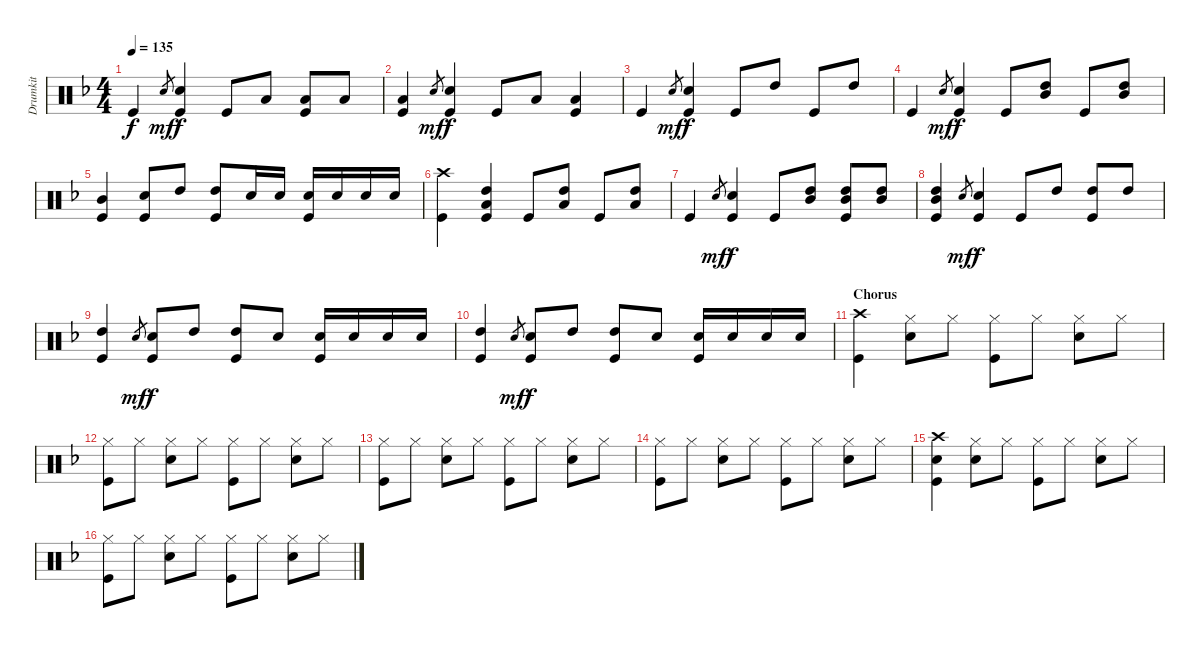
\track ("Drumkit" "Drumkit") {instrument percussion}
\staff {score}
\articulation defaults
\ts (4 4)
\tempo 135
\clef neutral
\ks f "Kick (hit)".4{dy f} "Snare (hit)".8{gr dy mf}
("Snare (hit) 2" "Kick (hit)").4{dy f} "Kick (hit)".8 "Low Tom (hit)".8 ("Low Tom (hit)" "Kick (hit)").8 "Low Tom (hit)".8 |
("Low Tom (hit)" "Kick (hit)").4 "Snare (hit)".8{gr dy mf} ("Snare (hit) 2" "Kick (hit)").4{dy f} "Kick (hit)".8 "Low Tom (hit)".8 ("Low Tom (hit)" "Kick (hit)").4 |
"Kick (hit)".4 "Snare (hit)".8{gr dy mf} ("Snare (hit) 2" "Kick (hit)").4{dy f} "Kick (hit)".8 "High Tom (hit)".8 "Kick (hit)".8 "High Tom (hit)".8 |
"Kick (hit)".4 "Snare (hit)".8{gr dy mf} ("Snare (hit) 2" "Kick (hit)").4{dy f} "Kick (hit)".8 ("High Tom (hit)" "Mid Tom (hit)").8 "Kick (hit)".8 ("High Tom (hit)" "Mid Tom (hit)").8 |
("Mid Tom (hit)" "Kick (hit)").4 ("Snare (hit) 2" "Kick (hit)").8 "High Tom (hit)".8 ("High Tom (hit)" "Kick (hit)").8 "Snare (hit) 2".16 "Snare (hit) 2".16 ("Snare (hit) 2" "Kick (hit)").16 "Snare (hit) 2".16 "Snare (hit) 2".16 "Snare (hit) 2".16 |
("Crash high (hit)" "Kick (hit)").4 ("High Tom (hit)" "Low Tom (hit)" "Kick (hit)").4 "Kick (hit)".8 ("High Tom (hit)" "Low Tom (hit)").8 "Kick (hit)".8 ("High Tom (hit)" "Low Tom (hit)").8 |
"Kick (hit)".4 "Snare (hit)".8{gr dy mf} ("Snare (hit) 2" "Kick (hit)").4{dy f} "Kick (hit)".8 ("High Tom (hit)" "Mid Tom (hit)").8 ("High Tom (hit)" "Mid Tom (hit)" "Kick (hit)").8 ("High Tom (hit)" "Mid Tom (hit)").8 |
("High Tom (hit)" "Mid Tom (hit)" "Kick (hit)").4 "Snare (hit)".8{gr dy mf} ("Snare (hit) 2" "Kick (hit)").4{dy f} "Kick (hit)".8 "High Tom (hit)".8 ("High Tom (hit)" "Kick (hit)").8 "High Tom (hit)".8 |
("High Tom (hit)" "Kick (hit)").4 "Snare (hit)".8{gr dy mf} ("Snare (hit) 2" "Kick (hit)").8{dy f} "High Tom (hit)".8 ("High Tom (hit)" "Kick (hit)").8 "Snare (hit) 2".8 ("Snare (hit) 2" "Kick (hit)").16 "Snare (hit) 2".16 "Snare (hit) 2".16 "Snare (hit) 2".16 |
("High Tom (hit)" "Kick (hit)").4 "Snare (hit)".8{gr dy mf} ("Snare (hit) 2" "Kick (hit)").8{dy f} "High Tom (hit)".8 ("High Tom (hit)" "Kick (hit)").8 "Snare (hit) 2".8 ("Snare (hit) 2" "Kick (hit)").16 "Snare (hit) 2".16 "Snare (hit) 2".16 "Snare (hit) 2".16 |
\section ("" "Chorus")
("Crash high (hit)" "Kick (hit)").4 ("Hi-Hat (closed)" "Snare (hit) 2").8 "Hi-Hat (closed)".8 ("Hi-Hat (closed)" "Kick (hit)").8 "Hi-Hat (closed)".8 ("Hi-Hat (closed)" "Snare (hit) 2").8 "Hi-Hat (closed)".8 |
("Hi-Hat (closed)" "Kick (hit)").8 "Hi-Hat (closed)".8 ("Hi-Hat (closed)" "Snare (hit) 2").8 "Hi-Hat (closed)".8 ("Hi-Hat (closed)" "Kick (hit)").8 "Hi-Hat (closed)".8 ("Hi-Hat (closed)" "Snare (hit) 2").8 "Hi-Hat (closed)".8 |
("Hi-Hat (closed)" "Kick (hit)").8 "Hi-Hat (closed)".8 ("Hi-Hat (closed)" "Snare (hit) 2").8 "Hi-Hat (closed)".8 ("Hi-Hat (closed)" "Kick (hit)").8 "Hi-Hat (closed)".8 ("Hi-Hat (closed)" "Snare (hit) 2").8 "Hi-Hat (closed)".8 |
("Hi-Hat (closed)" "Kick (hit)").8 "Hi-Hat (closed)".8 ("Hi-Hat (closed)" "Snare (hit) 2").8 "Hi-Hat (closed)".8 ("Hi-Hat (closed)" "Kick (hit)").8 "Hi-Hat (closed)".8 ("Hi-Hat (closed)" "Snare (hit) 2").8 "Hi-Hat (closed)".8 |
("Crash high (hit)" "Snare (hit) 2" "Kick (hit)").4 ("Hi-Hat (closed)" "Snare (hit) 2").8 "Hi-Hat (closed)".8 ("Hi-Hat (closed)" "Kick (hit)").8 "Hi-Hat (closed)".8 ("Hi-Hat (closed)" "Snare (hit) 2").8 "Hi-Hat (closed)".8 |
("Hi-Hat (closed)" "Kick (hit)").8 "Hi-Hat (closed)".8 ("Hi-Hat (closed)" "Snare (hit) 2").8 "Hi-Hat (closed)".8 ("Hi-Hat (closed)" "Kick (hit)").8 "Hi-Hat (closed)".8 ("Hi-Hat (closed)" "Snare (hit) 2").8 "Hi-Hat (closed)".8
